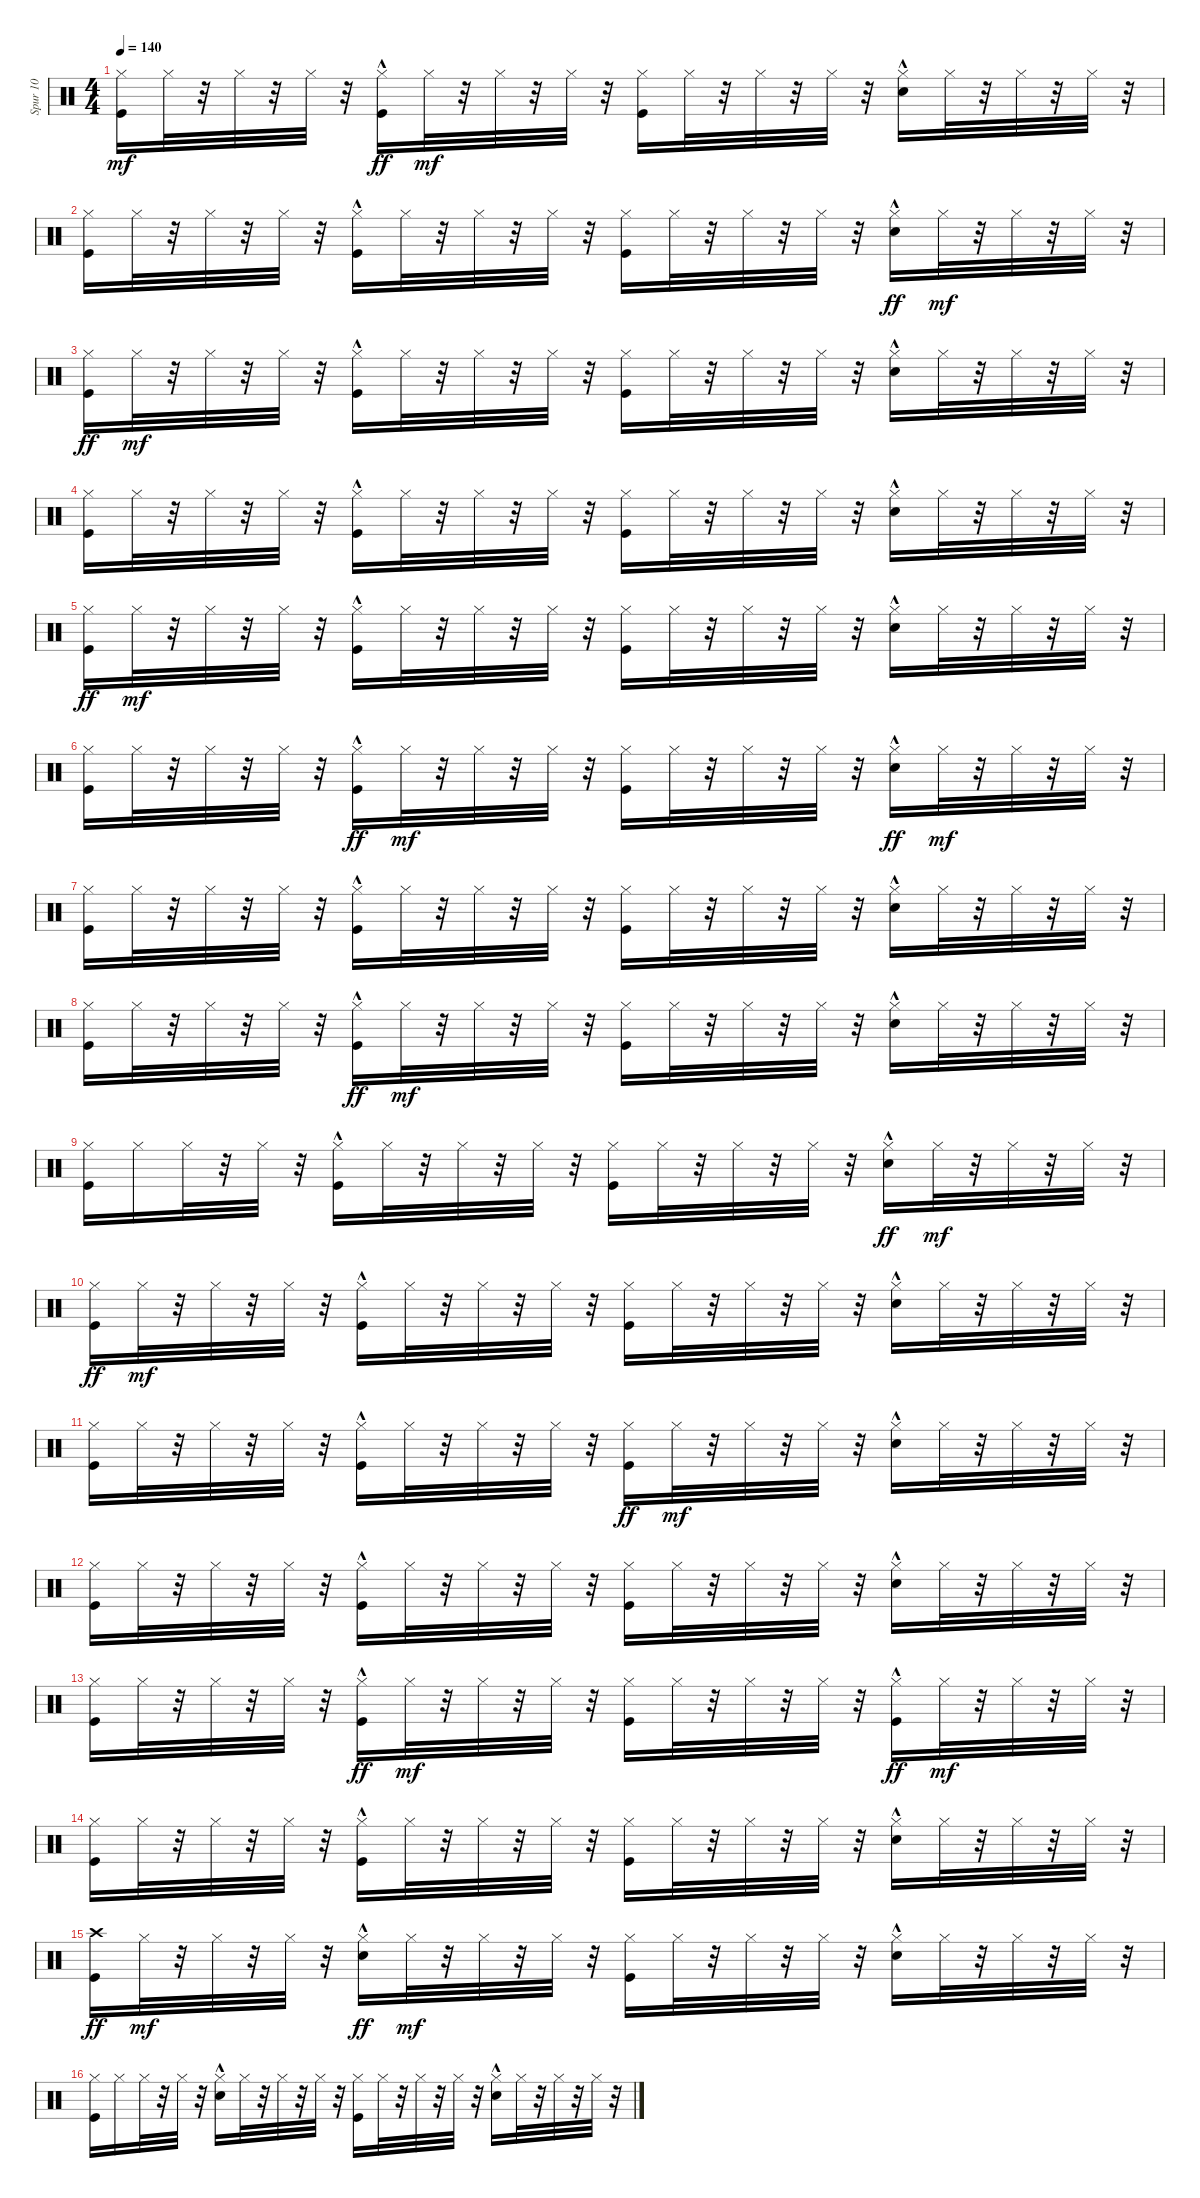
\track ("Spur 10" "Spur 10") {instrument percussion}
\staff {score}
\articulation defaults
\ts (4 4)
\tempo 140
\clef neutral
\ks c
("Kick (hit)" "Hi-Hat (closed)").16{dy mf} "Hi-Hat (closed)".32 r.32 "Hi-Hat (closed)".32 r.32 "Hi-Hat (closed)".32 r.32 ("Hi-Hat (closed)" "Kick (hit)"{hac}).16{dy ff} "Hi-Hat (closed)".32{dy mf} r.32 "Hi-Hat (closed)".32 r.32 "Hi-Hat (closed)".32 r.32 ("Kick (hit)" "Hi-Hat (closed)").16 "Hi-Hat (closed)".32 r.32 "Hi-Hat (closed)".32 r.32 "Hi-Hat (closed)".32 r.32 ("Snare (hit) 2"{hac} "Hi-Hat (closed)").16 "Hi-Hat (closed)".32 r.32 "Hi-Hat (closed)".32 r.32 "Hi-Hat (closed)".32 r.32 |
("Kick (hit)" "Hi-Hat (closed)").16 "Hi-Hat (closed)".32 r.32 "Hi-Hat (closed)".32 r.32 "Hi-Hat (closed)".32 r.32 ("Kick (hit)"{hac} "Hi-Hat (closed)").16 "Hi-Hat (closed)".32 r.32 "Hi-Hat (closed)".32 r.32 "Hi-Hat (closed)".32 r.32 ("Kick (hit)" "Hi-Hat (closed)").16 "Hi-Hat (closed)".32 r.32 "Hi-Hat (closed)".32 r.32 "Hi-Hat (closed)".32 r.32 ("Hi-Hat (closed)" "Snare (hit) 2"{hac}).16{dy ff} "Hi-Hat (closed)".32{dy mf} r.32 "Hi-Hat (closed)".32 r.32 "Hi-Hat (closed)".32 r.32 |
("Hi-Hat (closed)" "Kick (hit)").16{dy ff} "Hi-Hat (closed)".32{dy mf} r.32 "Hi-Hat (closed)".32 r.32 "Hi-Hat (closed)".32 r.32 ("Kick (hit)"{hac} "Hi-Hat (closed)").16 "Hi-Hat (closed)".32 r.32 "Hi-Hat (closed)".32 r.32 "Hi-Hat (closed)".32 r.32 ("Kick (hit)" "Hi-Hat (closed)").16 "Hi-Hat (closed)".32 r.32 "Hi-Hat (closed)".32 r.32 "Hi-Hat (closed)".32 r.32 ("Snare (hit) 2"{hac} "Hi-Hat (closed)").16 "Hi-Hat (closed)".32 r.32 "Hi-Hat (closed)".32 r.32 "Hi-Hat (closed)".32 r.32 |
("Kick (hit)" "Hi-Hat (closed)").16 "Hi-Hat (closed)".32 r.32 "Hi-Hat (closed)".32 r.32 "Hi-Hat (closed)".32 r.32 ("Kick (hit)"{hac} "Hi-Hat (closed)").16 "Hi-Hat (closed)".32 r.32 "Hi-Hat (closed)".32 r.32 "Hi-Hat (closed)".32 r.32 ("Kick (hit)" "Hi-Hat (closed)").16 "Hi-Hat (closed)".32 r.32 "Hi-Hat (closed)".32 r.32 "Hi-Hat (closed)".32 r.32 ("Snare (hit) 2"{hac} "Hi-Hat (closed)").16 "Hi-Hat (closed)".32 r.32 "Hi-Hat (closed)".32 r.32 "Hi-Hat (closed)".32 r.32 |
("Hi-Hat (closed)" "Kick (hit)").16{dy ff} "Hi-Hat (closed)".32{dy mf} r.32 "Hi-Hat (closed)".32 r.32 "Hi-Hat (closed)".32 r.32 ("Kick (hit)"{hac} "Hi-Hat (closed)").16 "Hi-Hat (closed)".32 r.32 "Hi-Hat (closed)".32 r.32 "Hi-Hat (closed)".32 r.32 ("Kick (hit)" "Hi-Hat (closed)").16 "Hi-Hat (closed)".32 r.32 "Hi-Hat (closed)".32 r.32 "Hi-Hat (closed)".32 r.32 ("Snare (hit) 2"{hac} "Hi-Hat (closed)").16 "Hi-Hat (closed)".32 r.32 "Hi-Hat (closed)".32 r.32 "Hi-Hat (closed)".32 r.32 |
("Kick (hit)" "Hi-Hat (closed)").16 "Hi-Hat (closed)".32 r.32 "Hi-Hat (closed)".32 r.32 "Hi-Hat (closed)".32 r.32 ("Hi-Hat (closed)" "Kick (hit)"{hac}).16{dy ff} "Hi-Hat (closed)".32{dy mf} r.32 "Hi-Hat (closed)".32 r.32 "Hi-Hat (closed)".32 r.32 ("Kick (hit)" "Hi-Hat (closed)").16 "Hi-Hat (closed)".32 r.32 "Hi-Hat (closed)".32 r.32 "Hi-Hat (closed)".32 r.32 ("Hi-Hat (closed)" "Snare (hit) 2"{hac}).16{dy ff} "Hi-Hat (closed)".32{dy mf} r.32 "Hi-Hat (closed)".32 r.32 "Hi-Hat (closed)".32 r.32 |
("Kick (hit)" "Hi-Hat (closed)").16 "Hi-Hat (closed)".32 r.32 "Hi-Hat (closed)".32 r.32 "Hi-Hat (closed)".32 r.32 ("Kick (hit)"{hac} "Hi-Hat (closed)").16 "Hi-Hat (closed)".32 r.32 "Hi-Hat (closed)".32 r.32 "Hi-Hat (closed)".32 r.32 ("Kick (hit)" "Hi-Hat (closed)").16 "Hi-Hat (closed)".32 r.32 "Hi-Hat (closed)".32 r.32 "Hi-Hat (closed)".32 r.32 ("Snare (hit) 2"{hac} "Hi-Hat (closed)").16 "Hi-Hat (closed)".32 r.32 "Hi-Hat (closed)".32 r.32 "Hi-Hat (closed)".32 r.32 |
("Kick (hit)" "Hi-Hat (closed)").16 "Hi-Hat (closed)".32 r.32 "Hi-Hat (closed)".32 r.32 "Hi-Hat (closed)".32 r.32 ("Hi-Hat (closed)" "Kick (hit)"{hac}).16{dy ff} "Hi-Hat (closed)".32{dy mf} r.32 "Hi-Hat (closed)".32 r.32 "Hi-Hat (closed)".32 r.32 ("Kick (hit)" "Hi-Hat (closed)").16 "Hi-Hat (closed)".32 r.32 "Hi-Hat (closed)".32 r.32 "Hi-Hat (closed)".32 r.32 ("Snare (hit) 2"{hac} "Hi-Hat (closed)").16 "Hi-Hat (closed)".32 r.32 "Hi-Hat (closed)".32 r.32 "Hi-Hat (closed)".32 r.32 |
("Kick (hit)" "Hi-Hat (closed)").16 "Hi-Hat (closed)".16 "Hi-Hat (closed)".32 r.32 "Hi-Hat (closed)".32 r.32 ("Kick (hit)"{hac} "Hi-Hat (closed)").16 "Hi-Hat (closed)".32 r.32 "Hi-Hat (closed)".32 r.32 "Hi-Hat (closed)".32 r.32 ("Kick (hit)" "Hi-Hat (closed)").16 "Hi-Hat (closed)".32 r.32 "Hi-Hat (closed)".32 r.32 "Hi-Hat (closed)".32 r.32 ("Hi-Hat (closed)" "Snare (hit) 2"{hac}).16{dy ff} "Hi-Hat (closed)".32{dy mf} r.32 "Hi-Hat (closed)".32 r.32 "Hi-Hat (closed)".32 r.32 |
("Hi-Hat (closed)" "Kick (hit)").16{dy ff} "Hi-Hat (closed)".32{dy mf} r.32 "Hi-Hat (closed)".32 r.32 "Hi-Hat (closed)".32 r.32 ("Kick (hit)"{hac} "Hi-Hat (closed)").16 "Hi-Hat (closed)".32 r.32 "Hi-Hat (closed)".32 r.32 "Hi-Hat (closed)".32 r.32 ("Kick (hit)" "Hi-Hat (closed)").16 "Hi-Hat (closed)".32 r.32 "Hi-Hat (closed)".32 r.32 "Hi-Hat (closed)".32 r.32 ("Snare (hit) 2"{hac} "Hi-Hat (closed)").16 "Hi-Hat (closed)".32 r.32 "Hi-Hat (closed)".32 r.32 "Hi-Hat (closed)".32 r.32 |
("Kick (hit)" "Hi-Hat (closed)").16 "Hi-Hat (closed)".32 r.32 "Hi-Hat (closed)".32 r.32 "Hi-Hat (closed)".32 r.32 ("Kick (hit)"{hac} "Hi-Hat (closed)").16 "Hi-Hat (closed)".32 r.32 "Hi-Hat (closed)".32 r.32 "Hi-Hat (closed)".32 r.32 ("Hi-Hat (closed)" "Kick (hit)").16{dy ff} "Hi-Hat (closed)".32{dy mf} r.32 "Hi-Hat (closed)".32 r.32 "Hi-Hat (closed)".32 r.32 ("Snare (hit) 2"{hac} "Hi-Hat (closed)").16 "Hi-Hat (closed)".32 r.32 "Hi-Hat (closed)".32 r.32 "Hi-Hat (closed)".32 r.32 |
("Kick (hit)" "Hi-Hat (closed)").16 "Hi-Hat (closed)".32 r.32 "Hi-Hat (closed)".32 r.32 "Hi-Hat (closed)".32 r.32 ("Kick (hit)"{hac} "Hi-Hat (closed)").16 "Hi-Hat (closed)".32 r.32 "Hi-Hat (closed)".32 r.32 "Hi-Hat (closed)".32 r.32 ("Kick (hit)" "Hi-Hat (closed)").16 "Hi-Hat (closed)".32 r.32 "Hi-Hat (closed)".32 r.32 "Hi-Hat (closed)".32 r.32 ("Snare (hit) 2"{hac} "Hi-Hat (closed)").16 "Hi-Hat (closed)".32 r.32 "Hi-Hat (closed)".32 r.32 "Hi-Hat (closed)".32 r.32 |
("Kick (hit)" "Hi-Hat (closed)").16 "Hi-Hat (closed)".32 r.32 "Hi-Hat (closed)".32 r.32 "Hi-Hat (closed)".32 r.32 ("Hi-Hat (closed)" "Kick (hit)"{hac}).16{dy ff} "Hi-Hat (closed)".32{dy mf} r.32 "Hi-Hat (closed)".32 r.32 "Hi-Hat (closed)".32 r.32 ("Kick (hit)" "Hi-Hat (closed)").16 "Hi-Hat (closed)".32 r.32 "Hi-Hat (closed)".32 r.32 "Hi-Hat (closed)".32 r.32 ("Hi-Hat (closed)" "Kick (hit)"{hac}).16{dy ff} "Hi-Hat (closed)".32{dy mf} r.32 "Hi-Hat (closed)".32 r.32 "Hi-Hat (closed)".32 r.32 |
("Kick (hit)" "Hi-Hat (closed)").16 "Hi-Hat (closed)".32 r.32 "Hi-Hat (closed)".32 r.32 "Hi-Hat (closed)".32 r.32 ("Kick (hit)"{hac} "Hi-Hat (closed)").16 "Hi-Hat (closed)".32 r.32 "Hi-Hat (closed)".32 r.32 "Hi-Hat (closed)".32 r.32 ("Kick (hit)" "Hi-Hat (closed)").16 "Hi-Hat (closed)".32 r.32 "Hi-Hat (closed)".32 r.32 "Hi-Hat (closed)".32 r.32 ("Snare (hit) 2"{hac} "Hi-Hat (closed)").16 "Hi-Hat (closed)".32 r.32 "Hi-Hat (closed)".32 r.32 "Hi-Hat (closed)".32 r.32 |
("Crash high (hit)" "Kick (hit)").16{dy ff} "Hi-Hat (closed)".32{dy mf} r.32 "Hi-Hat (closed)".32 r.32 "Hi-Hat (closed)".32 r.32 ("Hi-Hat (closed)" "Snare (hit) 2"{hac}).16{dy ff} "Hi-Hat (closed)".32{dy mf} r.32 "Hi-Hat (closed)".32 r.32 "Hi-Hat (closed)".32 r.32 ("Kick (hit)" "Hi-Hat (closed)").16 "Hi-Hat (closed)".32 r.32 "Hi-Hat (closed)".32 r.32 "Hi-Hat (closed)".32 r.32 ("Snare (hit) 2"{hac} "Hi-Hat (closed)").16 "Hi-Hat (closed)".32 r.32 "Hi-Hat (closed)".32 r.32 "Hi-Hat (closed)".32 r.32 |
("Kick (hit)" "Hi-Hat (closed)").16 "Hi-Hat (closed)".16 "Hi-Hat (closed)".32 r.32 "Hi-Hat (closed)".32 r.32 ("Snare (hit) 2"{hac} "Hi-Hat (closed)").16 "Hi-Hat (closed)".32 r.32 "Hi-Hat (closed)".32 r.32 "Hi-Hat (closed)".32 r.32 ("Kick (hit)" "Hi-Hat (closed)").16 "Hi-Hat (closed)".32 r.32 "Hi-Hat (closed)".32 r.32 "Hi-Hat (closed)".32 r.32 ("Snare (hit) 2"{hac} "Hi-Hat (closed)").16 "Hi-Hat (closed)".32 r.32 "Hi-Hat (closed)".32 r.32 "Hi-Hat (closed)".32 r.32
